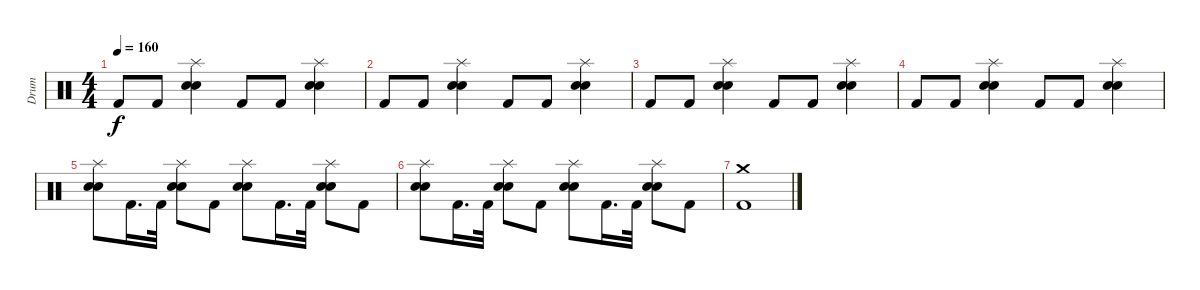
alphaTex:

\track ("Drum" "Drum") {instrument percussion}
\staff {score}
\articulation defaults
\ts (4 4)
\tempo 160
\clef neutral
\ks c "Kick (hit) 2".8{dy f} "Kick (hit) 2".8
("Splash (hit)" "Electric Snare (hit)" "Snare (hit) 2").4 "Kick (hit) 2".8 "Kick (hit) 2".8 ("Splash (hit)" "Electric Snare (hit)" "Snare (hit) 2").4 |
"Kick (hit) 2".8 "Kick (hit) 2".8 ("Splash (hit)" "Electric Snare (hit)" "Snare (hit) 2").4 "Kick (hit) 2".8 "Kick (hit) 2".8 ("Splash (hit)" "Electric Snare (hit)" "Snare (hit) 2").4 |
"Kick (hit) 2".8 "Kick (hit) 2".8 ("Splash (hit)" "Electric Snare (hit)" "Snare (hit) 2").4 "Kick (hit) 2".8 "Kick (hit) 2".8 ("Splash (hit)" "Electric Snare (hit)" "Snare (hit) 2").4 |
"Kick (hit) 2".8 "Kick (hit) 2".8 ("Splash (hit)" "Electric Snare (hit)" "Snare (hit) 2").4 "Kick (hit) 2".8 "Kick (hit) 2".8 ("Splash (hit)" "Electric Snare (hit)" "Snare (hit) 2").4 |
("Splash (hit)" "Electric Snare (hit)" "Snare (hit) 2").8 "Kick (hit) 2".16{d} "Kick (hit) 2".32 ("Splash (hit)" "Electric Snare (hit)" "Snare (hit) 2").8 "Kick (hit) 2".8 ("Splash (hit)" "Electric Snare (hit)" "Snare (hit) 2").8 "Kick (hit) 2".16{d} "Kick (hit) 2".32 ("Splash (hit)" "Electric Snare (hit)" "Snare (hit) 2").8 "Kick (hit) 2".8 |
("Splash (hit)" "Electric Snare (hit)" "Snare (hit) 2").8 "Kick (hit) 2".16{d} "Kick (hit) 2".32 ("Splash (hit)" "Electric Snare (hit)" "Snare (hit) 2").8 "Kick (hit) 2".8 ("Splash (hit)" "Electric Snare (hit)" "Snare (hit) 2").8 "Kick (hit) 2".16{d} "Kick (hit) 2".32 ("Splash (hit)" "Electric Snare (hit)" "Snare (hit) 2").8 "Kick (hit) 2".8 |
("Crash medium (hit)" "Kick (hit) 2").1
